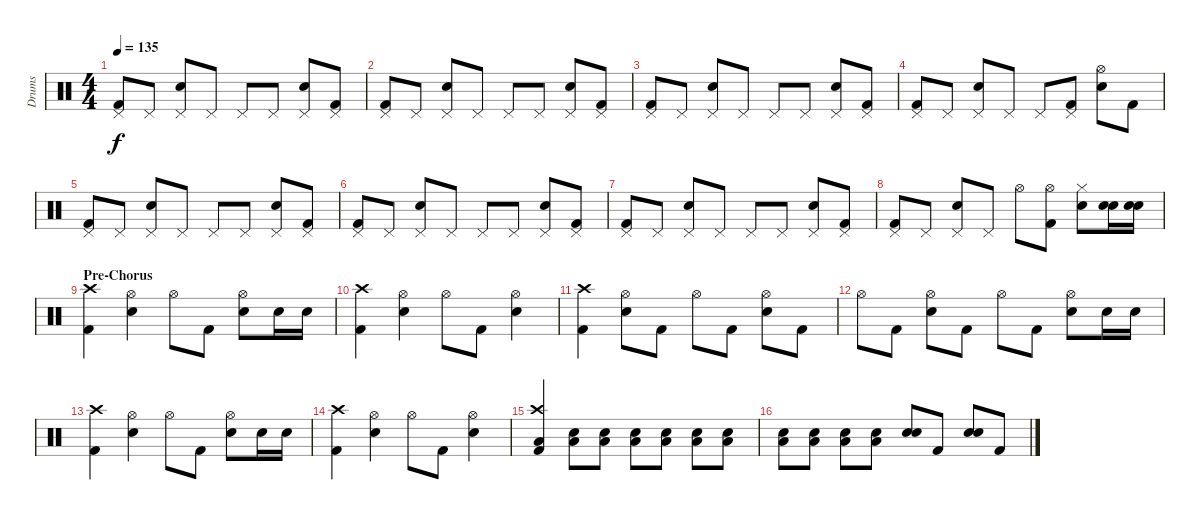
\track ("Drums" "Drums") {instrument percussion}
\staff {score}
\articulation defaults
\ts (4 4)
\tempo 135
\clef neutral
\ks c
("Pedal Hi-Hat (hit)" "Kick (hit) 2").8{dy f} "Pedal Hi-Hat (hit)".8 ("Pedal Hi-Hat (hit)" "Snare (hit) 2").8 "Pedal Hi-Hat (hit)".8 "Pedal Hi-Hat (hit)".8 "Pedal Hi-Hat (hit)".8 ("Pedal Hi-Hat (hit)" "Snare (hit) 2").8 ("Pedal Hi-Hat (hit)" "Kick (hit) 2").8 |
("Pedal Hi-Hat (hit)" "Kick (hit) 2").8 "Pedal Hi-Hat (hit)".8 ("Pedal Hi-Hat (hit)" "Snare (hit) 2").8 "Pedal Hi-Hat (hit)".8 "Pedal Hi-Hat (hit)".8 "Pedal Hi-Hat (hit)".8 ("Pedal Hi-Hat (hit)" "Snare (hit) 2").8 ("Pedal Hi-Hat (hit)" "Kick (hit) 2").8 |
("Pedal Hi-Hat (hit)" "Kick (hit) 2").8 "Pedal Hi-Hat (hit)".8 ("Pedal Hi-Hat (hit)" "Snare (hit) 2").8 "Pedal Hi-Hat (hit)".8 "Pedal Hi-Hat (hit)".8 "Pedal Hi-Hat (hit)".8 ("Pedal Hi-Hat (hit)" "Snare (hit) 2").8 ("Pedal Hi-Hat (hit)" "Kick (hit) 2").8 |
("Pedal Hi-Hat (hit)" "Kick (hit) 2").8 "Pedal Hi-Hat (hit)".8 ("Pedal Hi-Hat (hit)" "Snare (hit) 2").8 "Pedal Hi-Hat (hit)".8 "Pedal Hi-Hat (hit)".8 ("Pedal Hi-Hat (hit)" "Kick (hit) 2").8 ("Hi-Hat (open)" "Snare (hit) 2").8 "Kick (hit) 2".8 |
("Pedal Hi-Hat (hit)" "Kick (hit) 2").8 "Pedal Hi-Hat (hit)".8 ("Pedal Hi-Hat (hit)" "Snare (hit) 2").8 "Pedal Hi-Hat (hit)".8 "Pedal Hi-Hat (hit)".8 "Pedal Hi-Hat (hit)".8 ("Pedal Hi-Hat (hit)" "Snare (hit) 2").8 ("Pedal Hi-Hat (hit)" "Kick (hit) 2").8 |
("Pedal Hi-Hat (hit)" "Kick (hit) 2").8 "Pedal Hi-Hat (hit)".8 ("Pedal Hi-Hat (hit)" "Snare (hit) 2").8 "Pedal Hi-Hat (hit)".8 "Pedal Hi-Hat (hit)".8 "Pedal Hi-Hat (hit)".8 ("Pedal Hi-Hat (hit)" "Snare (hit) 2").8 ("Pedal Hi-Hat (hit)" "Kick (hit) 2").8 |
("Pedal Hi-Hat (hit)" "Kick (hit) 2").8 "Pedal Hi-Hat (hit)".8 ("Pedal Hi-Hat (hit)" "Snare (hit) 2").8 "Pedal Hi-Hat (hit)".8 "Pedal Hi-Hat (hit)".8 "Pedal Hi-Hat (hit)".8 ("Pedal Hi-Hat (hit)" "Snare (hit) 2").8 ("Pedal Hi-Hat (hit)" "Kick (hit) 2").8 |
("Pedal Hi-Hat (hit)" "Kick (hit) 2").8 "Pedal Hi-Hat (hit)".8 ("Pedal Hi-Hat (hit)" "Snare (hit) 2").8 "Pedal Hi-Hat (hit)".8 "Hi-Hat (open)".8 ("Hi-Hat (open)" "Kick (hit) 2").8 ("Hi-Hat (closed)" "Snare (hit) 2").8 ("Snare (hit) 2" "Snare (hit) 2").16 ("Snare (hit) 2" "Snare (hit) 2").16 |
\section ("" "Pre-Chorus")
("Crash high (hit)" "Kick (hit) 2").4 ("Hi-Hat (open)" "Snare (hit) 2").4 "Hi-Hat (open)".8 "Kick (hit) 2".8 ("Hi-Hat (open)" "Snare (hit) 2").8 "Snare (hit) 2".16 "Snare (hit) 2".16 |
("Crash high (hit)" "Kick (hit) 2").4 ("Hi-Hat (open)" "Snare (hit) 2").4 "Hi-Hat (open)".8 "Kick (hit) 2".8 ("Hi-Hat (open)" "Snare (hit) 2").4 |
("Crash high (hit)" "Kick (hit) 2").4 ("Hi-Hat (open)" "Snare (hit) 2").8 "Kick (hit) 2".8 "Hi-Hat (open)".8 "Kick (hit) 2".8 ("Hi-Hat (open)" "Snare (hit) 2").8 "Kick (hit) 2".8 |
"Hi-Hat (open)".8 "Kick (hit) 2".8 ("Hi-Hat (open)" "Snare (hit) 2").8 "Kick (hit) 2".8 "Hi-Hat (open)".8 "Kick (hit) 2".8 ("Hi-Hat (open)" "Snare (hit) 2").8 "Snare (hit) 2".16 "Snare (hit) 2".16 |
("Crash high (hit)" "Kick (hit) 2").4 ("Hi-Hat (open)" "Snare (hit) 2").4 "Hi-Hat (open)".8 "Kick (hit) 2".8 ("Hi-Hat (open)" "Snare (hit) 2").8 "Snare (hit) 2".16 "Snare (hit) 2".16 |
("Crash high (hit)" "Kick (hit) 2").4 ("Hi-Hat (open)" "Snare (hit) 2").4 "Hi-Hat (open)".8 "Kick (hit) 2".8 ("Hi-Hat (open)" "Snare (hit) 2").4 |
("Crash high (hit)" "Low Floor Tom (hit)" "Kick (hit) 2").4 ("Snare (hit) 2" "Low Floor Tom (hit)").8 ("Snare (hit) 2" "Low Floor Tom (hit)").8 ("Snare (hit) 2" "Low Floor Tom (hit)").8 ("Snare (hit) 2" "Low Floor Tom (hit)").8 ("Snare (hit) 2" "Low Floor Tom (hit)").8 ("Snare (hit) 2" "Low Floor Tom (hit)").8 |
("Snare (hit) 2" "Low Floor Tom (hit)").8 ("Snare (hit) 2" "Low Floor Tom (hit)").8 ("Snare (hit) 2" "Low Floor Tom (hit)").8 ("Snare (hit) 2" "Low Floor Tom (hit)").8 ("Snare (hit) 2" "Snare (hit) 2").8 "Kick (hit) 2".8 ("Snare (hit) 2" "Snare (hit) 2").8 "Kick (hit) 2".8
